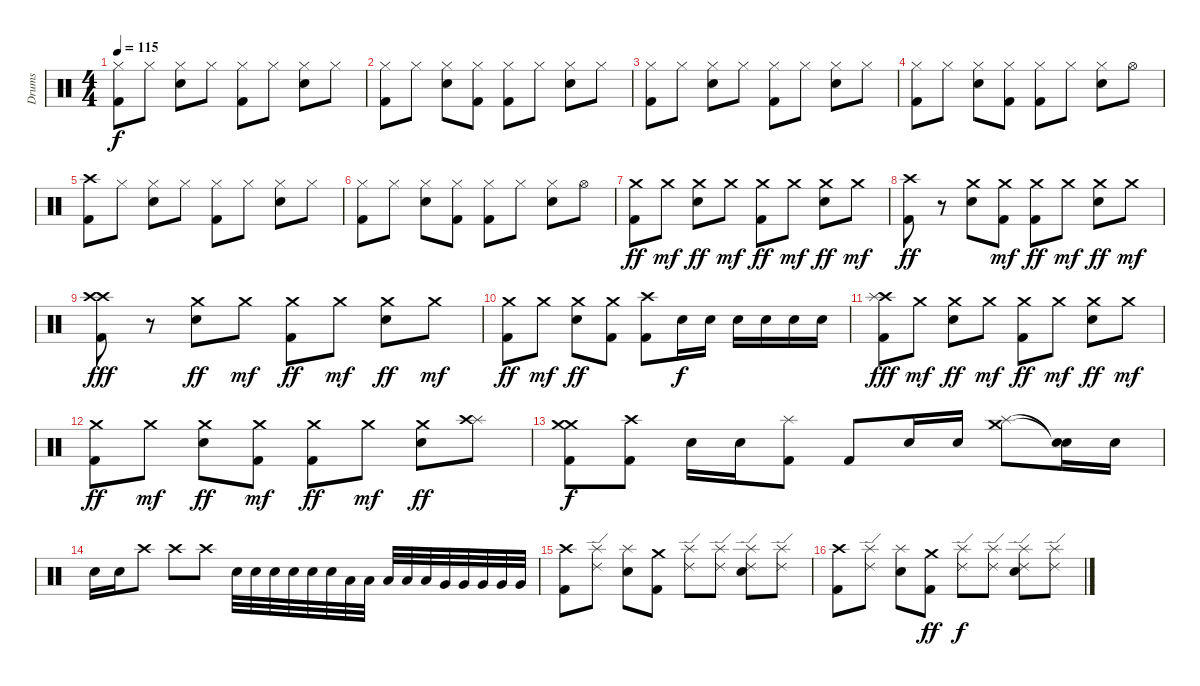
\track ("Drums" "Drums") {instrument percussion}
\staff {score}
\articulation defaults
\ts (4 4)
\tempo 115
\clef neutral
\ks c
("Hi-Hat (closed)" "Kick (hit) 2").8{dy f} "Hi-Hat (closed)".8 ("Hi-Hat (closed)" "Electric Snare (hit)").8 "Hi-Hat (closed)".8 ("Hi-Hat (closed)" "Kick (hit) 2").8 "Hi-Hat (closed)".8 ("Hi-Hat (closed)" "Electric Snare (hit)").8 "Hi-Hat (closed)".8 |
("Hi-Hat (closed)" "Kick (hit) 2").8 "Hi-Hat (closed)".8 ("Hi-Hat (closed)" "Electric Snare (hit)").8 ("Hi-Hat (closed)" "Kick (hit) 2").8 ("Hi-Hat (closed)" "Kick (hit) 2").8 "Hi-Hat (closed)".8 ("Hi-Hat (closed)" "Electric Snare (hit)").8 "Hi-Hat (closed)".8 |
("Hi-Hat (closed)" "Kick (hit) 2").8 "Hi-Hat (closed)".8 ("Hi-Hat (closed)" "Electric Snare (hit)").8 "Hi-Hat (closed)".8 ("Hi-Hat (closed)" "Kick (hit) 2").8 "Hi-Hat (closed)".8 ("Hi-Hat (closed)" "Electric Snare (hit)").8 "Hi-Hat (closed)".8 |
("Hi-Hat (closed)" "Kick (hit) 2").8 "Hi-Hat (closed)".8 ("Hi-Hat (closed)" "Electric Snare (hit)").8 ("Hi-Hat (closed)" "Kick (hit) 2").8 ("Hi-Hat (closed)" "Kick (hit) 2").8 "Hi-Hat (closed)".8 ("Hi-Hat (closed)" "Electric Snare (hit)").8 "Hi-Hat (open)".8 |
("Crash high (hit)" "Kick (hit) 2").8 "Hi-Hat (closed)".8 ("Hi-Hat (closed)" "Electric Snare (hit)").8 "Hi-Hat (closed)".8 ("Hi-Hat (closed)" "Kick (hit) 2").8 "Hi-Hat (closed)".8 ("Hi-Hat (closed)" "Electric Snare (hit)").8 "Hi-Hat (closed)".8 |
("Hi-Hat (closed)" "Kick (hit) 2").8 "Hi-Hat (closed)".8 ("Hi-Hat (closed)" "Electric Snare (hit)").8 ("Hi-Hat (closed)" "Kick (hit) 2").8 ("Hi-Hat (closed)" "Kick (hit) 2").8 "Hi-Hat (closed)".8 ("Hi-Hat (closed)" "Electric Snare (hit)").8 "Hi-Hat (open)".8 |
("Crash medium (hit)" "Kick (hit) 2").8{dy ff} "Crash medium (hit)".8{dy mf} ("Crash medium (hit)" "Electric Snare (hit)").8{dy ff} "Crash medium (hit)".8{dy mf} ("Crash medium (hit)" "Kick (hit) 2").8{dy ff} "Crash medium (hit)".8{dy mf} ("Crash medium (hit)" "Electric Snare (hit)").8{dy ff} "Crash medium (hit)".8{dy mf} |
("Crash high (hit)" "Kick (hit) 2").8{dy ff} r.8 ("Crash medium (hit)" "Electric Snare (hit)").8 ("Crash medium (hit)" "Kick (hit) 2").8{dy mf} ("Crash medium (hit)" "Kick (hit) 2").8{dy ff} "Crash medium (hit)".8{dy mf} ("Crash medium (hit)" "Electric Snare (hit)").8{dy ff} "Crash medium (hit)".8{dy mf} |
("Crash high (hit)" "Crash high (hit)" "Kick (hit) 2").8{dy fff} r.8 ("Crash medium (hit)" "Electric Snare (hit)").8{dy ff} "Crash medium (hit)".8{dy mf} ("Crash medium (hit)" "Kick (hit) 2").8{dy ff} "Crash medium (hit)".8{dy mf} ("Crash medium (hit)" "Electric Snare (hit)").8{dy ff} "Crash medium (hit)".8{dy mf} |
("Crash medium (hit)" "Kick (hit) 2").8{dy ff} "Crash medium (hit)".8{dy mf} ("Crash medium (hit)" "Electric Snare (hit)").8{dy ff} ("Crash medium (hit)" "Kick (hit) 2").8 ("Crash high (hit)" "Kick (hit) 2").8 "Electric Snare (hit)".16{dy f} "Electric Snare (hit)".16 "Electric Snare (hit)".16 "Electric Snare (hit)".16 "Electric Snare (hit)".16 "Electric Snare (hit)".16 |
("Crash high (hit)" "Splash (hit)" "Kick (hit) 2").8{dy fff} "Crash medium (hit)".8{dy mf} ("Crash medium (hit)" "Electric Snare (hit)").8{dy ff} "Crash medium (hit)".8{dy mf} ("Crash medium (hit)" "Kick (hit) 2").8{dy ff} "Crash medium (hit)".8{dy mf} ("Crash medium (hit)" "Electric Snare (hit)").8{dy ff} "Crash medium (hit)".8{dy mf} |
("Crash medium (hit)" "Kick (hit) 2").8{dy ff} "Crash medium (hit)".8{dy mf} ("Crash medium (hit)" "Electric Snare (hit)").8{dy ff} ("Crash medium (hit)" "Kick (hit) 2").8{dy mf} ("Crash medium (hit)" "Kick (hit) 2").8{dy ff} "Crash medium (hit)".8{dy mf} ("Crash medium (hit)" "Electric Snare (hit)").8{dy ff} ("Splash (hit)" "Crash high (hit)").8 |
("Crash medium (hit)" "Crash medium (hit)" "Kick (hit) 2").8{dy f} ("Crash high (hit)" "Kick (hit) 2").8 "Electric Snare (hit)".16 "Electric Snare (hit)".16 ("Splash (hit)" "Kick (hit) 2").8 "Kick (hit) 2".8 "Electric Snare (hit)".16 "Electric Snare (hit)".16 ("Crash medium (hit)" "Splash (hit)").8 ("Snare (hit)"{t} "Snare (hit)"{t}).16 "Electric Snare (hit)".16 |
"Electric Snare (hit)".16 "Electric Snare (hit)".16 "Crash high (hit)".8 "Crash high (hit)".8 "Crash high (hit)".8 "Electric Snare (hit)".32 "Electric Snare (hit)".32 "Electric Snare (hit)".32 "Electric Snare (hit)".32 "Electric Snare (hit)".32 "Electric Snare (hit)".32 "Low Tom (hit)".32 "Low Tom (hit)".32 "Low Tom (hit)".32 "Low Tom (hit)".32 "Low Tom (hit)".32 "Very Low Tom (hit)".32 "Very Low Tom (hit)".32 "Very Low Tom (hit)".32 "Very Low Tom (hit)".32 "Very Low Tom (hit)".32 |
("Crash high (hit)" "Kick (hit) 2").8 ("Splash (hit)" "Ride (edge) 2").8 ("Splash (hit)" "Electric Snare (hit)").8 ("Crash medium (hit)" "Kick (hit) 2").8 ("Splash (hit)" "Ride (edge) 2").8 ("Ride (edge) 2" "Splash (hit)").8 ("Ride (edge) 2" "Splash (hit)" "Electric Snare (hit)").8 ("Ride (edge) 2" "Splash (hit)").8 |
("Crash high (hit)" "Kick (hit) 2").8 ("Splash (hit)" "Ride (edge) 2").8 ("Splash (hit)" "Electric Snare (hit)").8 ("Crash medium (hit)" "Kick (hit) 2").8{dy ff} ("Splash (hit)" "Ride (edge) 2").8{dy f} ("Ride (edge) 2" "Splash (hit)").8 ("Ride (edge) 2" "Splash (hit)" "Electric Snare (hit)").8 ("Ride (edge) 2" "Splash (hit)").8
